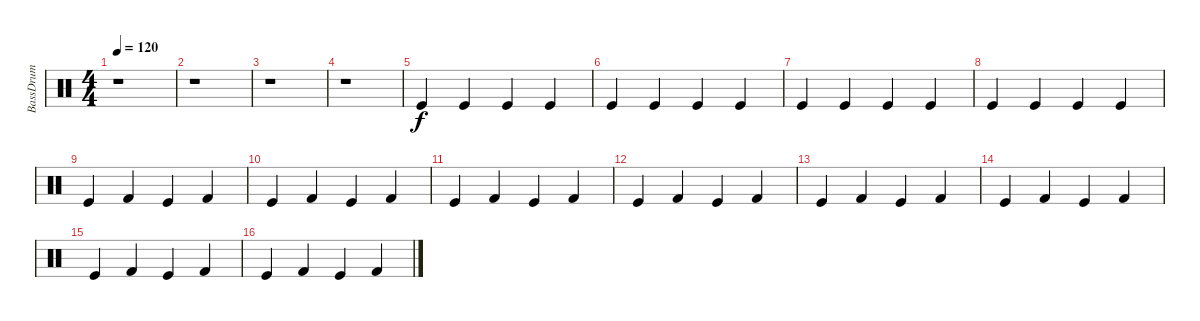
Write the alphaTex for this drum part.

\track ("BassDrum" "BassDrum") {instrument percussion}
\staff {score}
\articulation defaults
\ts (4 4)
\tempo 120
\clef neutral
\ks c
r.1{dy f} |
r.1 |
r.1 |
r.1 |
"Kick (hit)".4 "Kick (hit)".4 "Kick (hit)".4 "Kick (hit)".4 |
"Kick (hit)".4 "Kick (hit)".4 "Kick (hit)".4 "Kick (hit)".4 |
"Kick (hit)".4 "Kick (hit)".4 "Kick (hit)".4 "Kick (hit)".4 |
"Kick (hit)".4 "Kick (hit)".4 "Kick (hit)".4 "Kick (hit)".4 |
"Kick (hit)".4 "Kick (hit) 2".4 "Kick (hit)".4 "Kick (hit) 2".4 |
"Kick (hit)".4 "Kick (hit) 2".4 "Kick (hit)".4 "Kick (hit) 2".4 |
"Kick (hit)".4 "Kick (hit) 2".4 "Kick (hit)".4 "Kick (hit) 2".4 |
"Kick (hit)".4 "Kick (hit) 2".4 "Kick (hit)".4 "Kick (hit) 2".4 |
"Kick (hit)".4 "Kick (hit) 2".4 "Kick (hit)".4 "Kick (hit) 2".4 |
"Kick (hit)".4 "Kick (hit) 2".4 "Kick (hit)".4 "Kick (hit) 2".4 |
"Kick (hit)".4 "Kick (hit) 2".4 "Kick (hit)".4 "Kick (hit) 2".4 |
"Kick (hit)".4 "Kick (hit) 2".4 "Kick (hit)".4 "Kick (hit) 2".4
